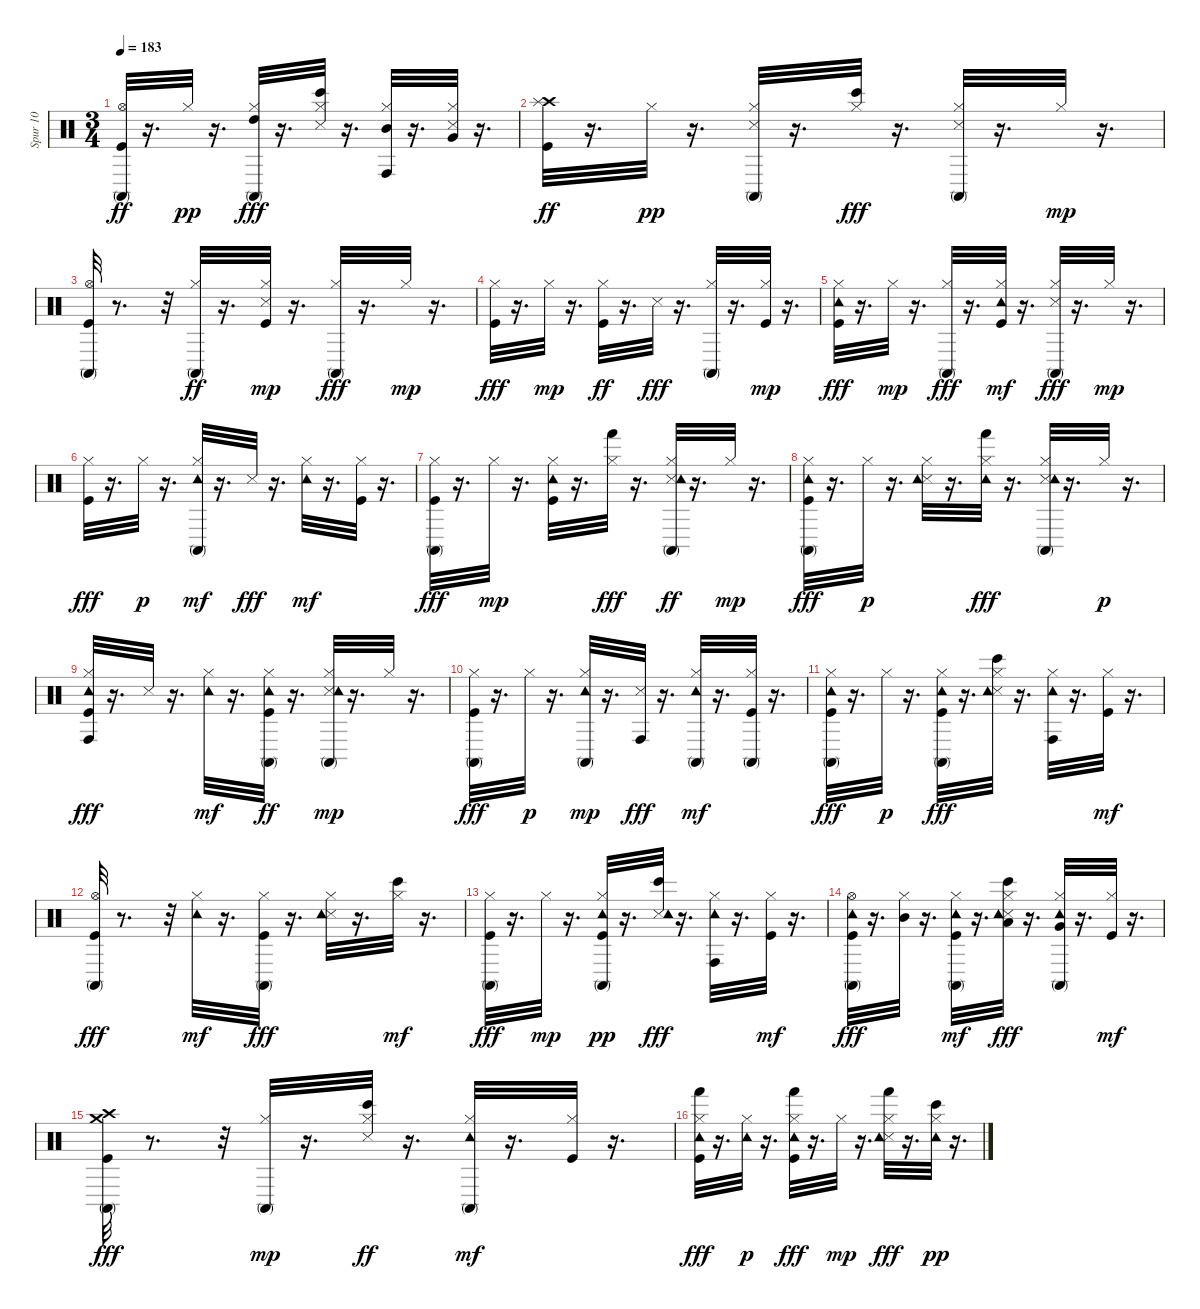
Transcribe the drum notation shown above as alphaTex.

\track ("Spur 10" "Spur 10") {instrument percussion}
\staff {score}
\articulation defaults
\ts (3 4)
\tempo 183
\clef neutral
\ks c
("Kick (hit)" "Hi-Hat (open)" "Conga high (mute)").32{dy ff} r.16{d} "Hi-Hat (closed)".32{dy pp} r.16{d} ("Hi-Hat (closed)" "High Tom (hit)" "Conga high (mute)").32{dy fff} r.16{d} ("Snare (side stick) 3" "Hi-Hat (closed)" "Bongo High (hit)").32 r.16{d} ("Hi-Hat (closed)" "Mid Tom (hit)" "Conga high (hit)").32 r.16{d} ("Snare (side stick) 3" "Hi-Hat (closed)" "Very Low Tom (hit)").32 r.16{d} |
("Kick (hit)" "Crash high (hit)" "Splash (hit)").32{dy ff} r.16{d} "Hi-Hat (closed)".32{dy pp} r.16{d} ("Snare (side stick) 3" "Hi-Hat (closed)" "Conga high (mute)").32 r.16{d} ("Hi-Hat (closed)" "Bongo High (hit)").32{dy fff} r.16{d} ("Snare (side stick) 3" "Hi-Hat (closed)" "Conga high (mute)").32 r.16{d} "Hi-Hat (closed)".32{dy mp} r.16{d} |
("Kick (hit)" "Hi-Hat (open)" "Conga high (mute)").32 r.8{d} r.32 ("Hi-Hat (closed)" "Conga high (mute)").32{dy ff} r.16{d} ("Kick (hit)" "Snare (side stick) 3" "Hi-Hat (closed)").32{dy mp} r.16{d} ("Hi-Hat (closed)" "Conga high (mute)").32{dy fff} r.16{d} "Hi-Hat (closed)".32{dy mp} r.16{d} |
("Kick (hit)" "Hi-Hat (closed)").32{dy fff} r.16{d} "Hi-Hat (closed)".32{dy mp} r.16{d} ("Kick (hit)" "Hi-Hat (closed)").32{dy ff} r.16{d} "Snare (side stick) 3".32{dy fff} r.16{d} ("Hi-Hat (closed)" "Conga high (mute)").32 r.16{d} ("Kick (hit)" "Hi-Hat (closed)").32{dy mp} r.16{d} |
("Kick (hit)" "Hi-Hat (closed)" "Tambourine (hit)").32{dy fff} r.16{d} "Hi-Hat (closed)".32{dy mp} r.16{d} ("Hi-Hat (closed)" "Conga high (mute)").32{dy fff} r.16{d} ("Kick (hit)" "Hi-Hat (closed)" "Tambourine (hit)").32{dy mf} r.16{d} ("Snare (side stick) 3" "Hi-Hat (closed)" "Conga high (mute)").32{dy fff} r.16{d} "Hi-Hat (closed)".32{dy mp} r.16{d} |
("Kick (hit)" "Hi-Hat (closed)").32{dy fff} r.16{d} "Hi-Hat (closed)".32{dy p} r.16{d} ("Hi-Hat (closed)" "Tambourine (hit)" "Conga high (mute)").32{dy mf} r.16{d} "Snare (side stick) 3".32{dy fff} r.16{d} ("Hi-Hat (closed)" "Tambourine (hit)").32{dy mf} r.16{d} ("Kick (hit)" "Hi-Hat (closed)").32 r.16{d} |
("Kick (hit)" "Hi-Hat (closed)" "Conga high (mute)").32{dy fff} r.16{d} "Hi-Hat (closed)".32{dy mp} r.16{d} ("Kick (hit)" "Hi-Hat (closed)" "Tambourine (hit)").32 r.16{d} ("Hi-Hat (closed)" "Hand (hit)").32{dy fff} r.16{d} ("Snare (side stick) 3" "Hi-Hat (closed)" "Tambourine (hit)" "Conga high (mute)").32{dy ff} r.16{d} "Hi-Hat (closed)".32{dy mp} r.16{d} |
("Kick (hit)" "Hi-Hat (closed)" "Tambourine (hit)" "Conga high (mute)").32{dy fff} r.16{d} "Hi-Hat (closed)".32{dy p} r.16{d} ("Snare (side stick) 3" "Hi-Hat (closed)" "Tambourine (hit)").32 r.16{d} ("Hi-Hat (closed)" "Tambourine (hit)" "Hand (hit)").32{dy fff} r.16{d} ("Snare (side stick) 3" "Hi-Hat (closed)" "Tambourine (hit)" "Conga high (mute)").32 r.16{d} "Hi-Hat (closed)".32{dy p} r.16{d} |
("Kick (hit)" "Hi-Hat (closed)" "Tambourine (hit)" "Conga high (hit)").32{dy fff} r.16{d} "Snare (side stick) 3".32 r.16{d} ("Hi-Hat (closed)" "Tambourine (hit)").32{dy mf} r.16{d} ("Kick (hit)" "Hi-Hat (closed)" "Tambourine (hit)" "Conga high (mute)").32{dy ff} r.16{d} ("Snare (side stick) 3" "Hi-Hat (closed)" "Tambourine (hit)" "Conga high (mute)").32{dy mp} r.16{d} "Hi-Hat (closed)".32 r.16{d} |
("Kick (hit)" "Hi-Hat (closed)" "Conga high (mute)").32{dy fff} r.16{d} "Hi-Hat (closed)".32{dy p} r.16{d} ("Hi-Hat (closed)" "Tambourine (hit)" "Conga high (mute)").32{dy mp} r.16{d} ("Snare (side stick) 3" "Conga high (hit)").32{dy fff} r.16{d} ("Hi-Hat (closed)" "Tambourine (hit)" "Conga high (mute)").32{dy mf} r.16{d} ("Kick (hit)" "Hi-Hat (closed)" "Conga high (mute)").32 r.16{d} |
("Kick (hit)" "Hi-Hat (closed)" "Tambourine (hit)" "Conga high (mute)").32{dy fff} r.16{d} "Hi-Hat (closed)".32{dy p} r.16{d} ("Kick (hit)" "Hi-Hat (closed)" "Tambourine (hit)" "Conga high (mute)").32{dy fff} r.16{d} ("Snare (side stick) 3" "Hi-Hat (closed)" "Tambourine (hit)" "Bongo High (hit)").32 r.16{d} ("Hi-Hat (closed)" "Tambourine (hit)" "Conga high (hit)").32 r.16{d} ("Kick (hit)" "Hi-Hat (closed)").32{dy mf} r.16{d} |
("Kick (hit)" "Hi-Hat (open)" "Conga high (mute)").32{dy fff} r.8{d} r.32 ("Hi-Hat (closed)" "Tambourine (hit)").32{dy mf} r.16{d} ("Kick (hit)" "Hi-Hat (closed)" "Conga high (mute)").32{dy fff} r.16{d} ("Snare (side stick) 3" "Hi-Hat (closed)" "Tambourine (hit)").32 r.16{d} ("Hi-Hat (closed)" "Bongo High (hit)").32{dy mf} r.16{d} |
("Kick (hit)" "Hi-Hat (closed)" "Conga high (mute)").32{dy fff} r.16{d} "Hi-Hat (closed)".32{dy mp} r.16{d} ("Kick (hit)" "Hi-Hat (closed)" "Tambourine (hit)" "Conga high (mute)").32{dy pp} r.16{d} ("Snare (side stick) 3" "Tambourine (hit)" "Bongo High (hit)").32{dy fff} r.16{d} ("Hi-Hat (closed)" "Tambourine (hit)" "Conga high (hit)").32 r.16{d} ("Kick (hit)" "Hi-Hat (closed)").32{dy mf} r.16{d} |
("Kick (hit)" "Hi-Hat (open)" "Tambourine (hit)" "Conga high (mute)").32{dy fff} r.16{d} ("Hi-Hat (closed)" "Mid Tom (hit)").32 r.16{d} ("Kick (hit)" "Hi-Hat (closed)" "Tambourine (hit)" "Conga high (mute)").32{dy mf} r.16{d} ("Snare (side stick) 3" "Hi-Hat (closed)" "Low Tom (hit)" "Tambourine (hit)" "Bongo High (hit)").32{dy fff} r.16{d} ("Hi-Hat (closed)" "Very Low Tom (hit)" "Tambourine (hit)" "Conga high (mute)").32 r.16{d} ("Kick (hit)" "Hi-Hat (closed)").32{dy mf} r.16{d} |
("Kick (hit)" "Crash high (hit)" "Crash medium (hit)" "Conga high (mute)").32{dy fff} r.8{d} r.32 ("Hi-Hat (closed)" "Conga high (mute)").32{dy mp} r.16{d} ("Snare (side stick) 3" "Hi-Hat (closed)" "Bongo High (hit)").32{dy ff} r.16{d} ("Hi-Hat (closed)" "Tambourine (hit)" "Conga high (mute)").32{dy mf} r.16{d} ("Kick (hit)" "Hi-Hat (closed)").32 r.16{d} |
("Kick (hit)" "Hi-Hat (closed)" "Tambourine (hit)" "Hand (hit)").32{dy fff} r.16{d} ("Hi-Hat (closed)" "Tambourine (hit)").32{dy p} r.16{d} ("Kick (hit)" "Hi-Hat (closed)" "Tambourine (hit)" "Hand (hit)").32{dy fff} r.16{d} "Hi-Hat (closed)".32{dy mp} r.16{d} ("Snare (side stick) 3" "Hi-Hat (closed)" "Tambourine (hit)" "Hand (hit)").32{dy fff} r.16{d} ("Hi-Hat (closed)" "Tambourine (hit)" "Bongo High (hit)").32{dy pp} r.16{d}
